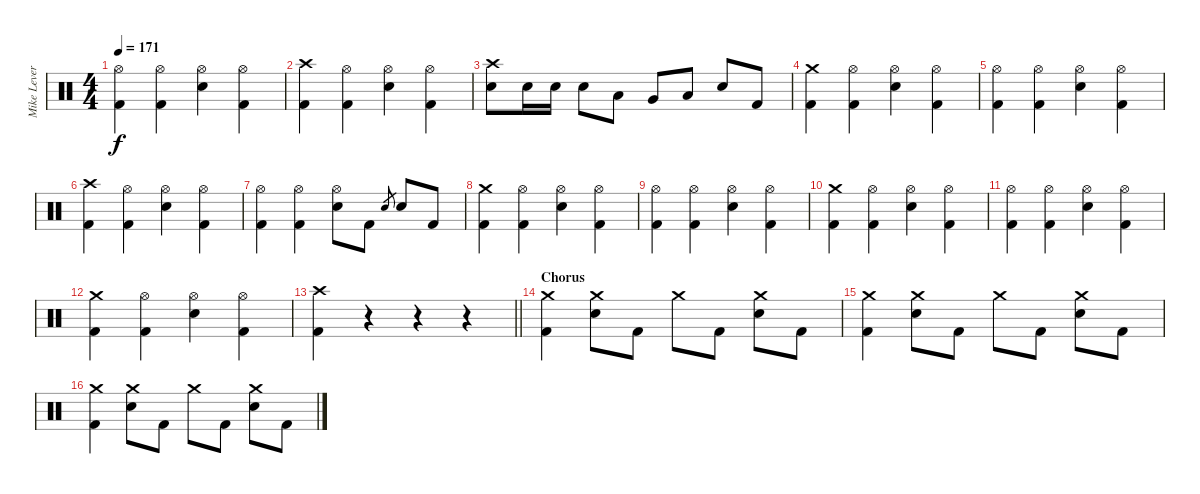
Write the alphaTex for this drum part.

\track ("Mike Leverence - Drums" "Mike Lever") {instrument percussion}
\staff {score}
\articulation defaults
\ts (4 4)
\tempo 171
\clef neutral
\ks c
("Hi-Hat (open)" "Kick (hit) 2").4{dy f} ("Hi-Hat (open)" "Kick (hit) 2").4 ("Hi-Hat (open)" "Electric Snare (hit)").4 ("Hi-Hat (open)" "Kick (hit) 2").4 |
("Crash high (hit)" "Kick (hit) 2").4 ("Hi-Hat (open)" "Kick (hit) 2").4 ("Hi-Hat (open)" "Electric Snare (hit)").4 ("Hi-Hat (open)" "Kick (hit) 2").4 |
("Crash high (hit)" "Electric Snare (hit)").8 "Electric Snare (hit)".16 "Electric Snare (hit)".16 "Electric Snare (hit)".8 "Low Tom (hit)".8 "Very Low Tom (hit)".8 "Low Floor Tom (hit)".8 "Electric Snare (hit)".8 "Kick (hit) 2".8 |
("Crash medium (hit)" "Kick (hit) 2").4 ("Hi-Hat (open)" "Kick (hit) 2").4 ("Hi-Hat (open)" "Electric Snare (hit)").4 ("Hi-Hat (open)" "Kick (hit) 2").4 |
("Hi-Hat (open)" "Kick (hit) 2").4 ("Hi-Hat (open)" "Kick (hit) 2").4 ("Hi-Hat (open)" "Electric Snare (hit)").4 ("Hi-Hat (open)" "Kick (hit) 2").4 |
("Crash high (hit)" "Kick (hit) 2").4 ("Hi-Hat (open)" "Kick (hit) 2").4 ("Hi-Hat (open)" "Electric Snare (hit)").4 ("Hi-Hat (open)" "Kick (hit) 2").4 |
("Hi-Hat (open)" "Kick (hit) 2").4 ("Hi-Hat (open)" "Kick (hit) 2").4 ("Hi-Hat (open)" "Electric Snare (hit)").8 "Kick (hit) 2".8 "Electric Snare (hit)".8{gr} "Electric Snare (hit)".8 "Kick (hit) 2".8 |
("Crash medium (hit)" "Kick (hit) 2").4 ("Hi-Hat (open)" "Kick (hit) 2").4 ("Hi-Hat (open)" "Electric Snare (hit)").4 ("Hi-Hat (open)" "Kick (hit) 2").4 |
("Hi-Hat (open)" "Kick (hit) 2").4 ("Hi-Hat (open)" "Kick (hit) 2").4 ("Hi-Hat (open)" "Electric Snare (hit)").4 ("Hi-Hat (open)" "Kick (hit) 2").4 |
("Crash medium (hit)" "Kick (hit) 2").4 ("Hi-Hat (open)" "Kick (hit) 2").4 ("Hi-Hat (open)" "Electric Snare (hit)").4 ("Hi-Hat (open)" "Kick (hit) 2").4 |
("Hi-Hat (open)" "Kick (hit) 2").4 ("Hi-Hat (open)" "Kick (hit) 2").4 ("Hi-Hat (open)" "Electric Snare (hit)").4 ("Hi-Hat (open)" "Kick (hit) 2").4 |
("Crash medium (hit)" "Kick (hit) 2").4 ("Hi-Hat (open)" "Kick (hit) 2").4 ("Hi-Hat (open)" "Electric Snare (hit)").4 ("Hi-Hat (open)" "Kick (hit) 2").4 |
\barLineRight lightlight
("Crash high (hit)" "Kick (hit) 2").4 r.4 r.4 r.4 |
\section ("" "Chorus")
("Crash medium (hit)" "Kick (hit) 2").4 ("Crash medium (hit)" "Electric Snare (hit)").8 "Kick (hit) 2".8 "Crash medium (hit)".8 "Kick (hit) 2".8 ("Crash medium (hit)" "Electric Snare (hit)").8 "Kick (hit) 2".8 |
("Crash medium (hit)" "Kick (hit) 2").4 ("Crash medium (hit)" "Electric Snare (hit)").8 "Kick (hit) 2".8 "Crash medium (hit)".8 "Kick (hit) 2".8 ("Crash medium (hit)" "Electric Snare (hit)").8 "Kick (hit) 2".8 |
("Crash medium (hit)" "Kick (hit) 2").4 ("Crash medium (hit)" "Electric Snare (hit)").8 "Kick (hit) 2".8 "Crash medium (hit)".8 "Kick (hit) 2".8 ("Crash medium (hit)" "Electric Snare (hit)").8 "Kick (hit) 2".8
